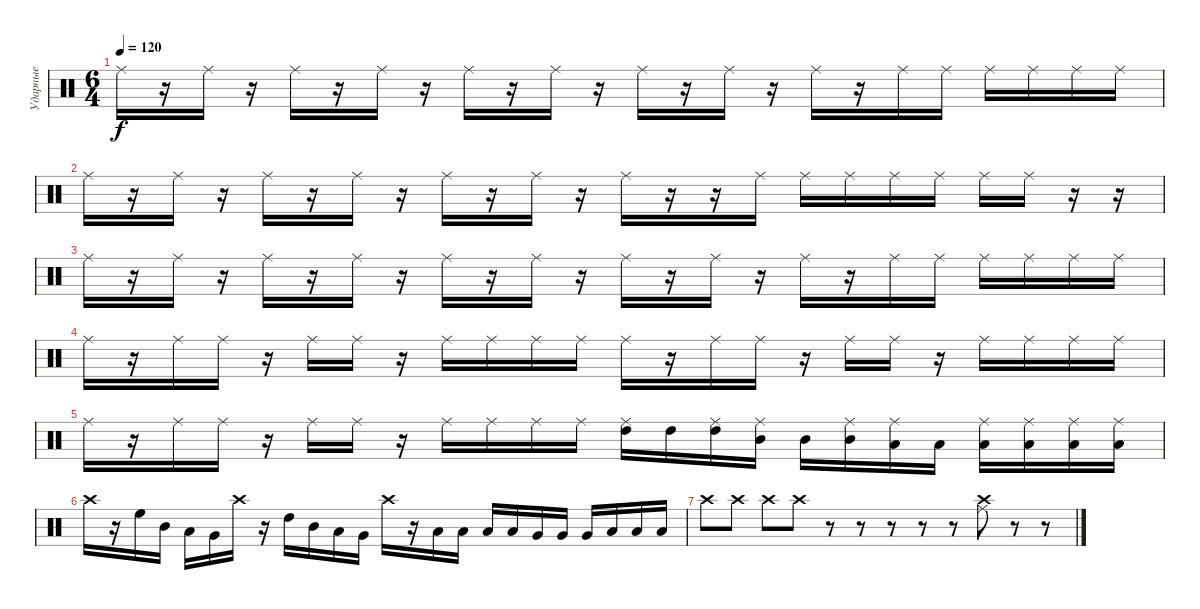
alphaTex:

\track ("Ударные" "Ударные") {instrument percussion}
\staff {score}
\articulation defaults
\ts (6 4)
\tempo 120
\clef neutral
\ks c "Ride (middle)".16{dy f}
r.16 "Ride (middle)".16 r.16 "Ride (middle)".16 r.16 "Ride (middle)".16 r.16 "Ride (middle)".16 r.16 "Ride (middle)".16 r.16 "Ride (middle)".16 r.16 "Ride (middle)".16 r.16 "Ride (middle)".16 r.16 "Ride (middle)".16 "Ride (middle)".16 "Ride (middle)".16 "Ride (middle)".16 "Ride (middle)".16 "Ride (middle)".16 |
"Ride (middle)".16 r.16 "Ride (middle)".16 r.16 "Ride (middle)".16 r.16 "Ride (middle)".16 r.16 "Ride (middle)".16 r.16 "Ride (middle)".16 r.16 "Ride (middle)".16 r.16 r.16 "Ride (middle)".16 "Ride (middle)".16 "Ride (middle)".16 "Ride (middle)".16 "Ride (middle)".16 "Ride (middle)".16 "Ride (middle)".16 r.16 r.16 |
"Ride (middle)".16 r.16 "Ride (middle)".16 r.16 "Ride (middle)".16 r.16 "Ride (middle)".16 r.16 "Ride (middle)".16 r.16 "Ride (middle)".16 r.16 "Ride (middle)".16 r.16 "Ride (middle)".16 r.16 "Ride (middle)".16 r.16 "Ride (middle)".16 "Ride (middle)".16 "Ride (middle)".16 "Ride (middle)".16 "Ride (middle)".16 "Ride (middle)".16 |
"Ride (middle)".16 r.16 "Ride (middle)".16 "Ride (middle)".16 r.16 "Ride (middle)".16 "Ride (middle)".16 r.16 "Ride (middle)".16 "Ride (middle)".16 "Ride (middle)".16 "Ride (middle)".16 "Ride (middle)".16 r.16 "Ride (middle)".16 "Ride (middle)".16 r.16 "Ride (middle)".16 "Ride (middle)".16 r.16 "Ride (middle)".16 "Ride (middle)".16 "Ride (middle)".16 "Ride (middle)".16 |
"Ride (middle)".16 r.16 "Ride (middle)".16 "Ride (middle)".16 r.16 "Ride (middle)".16 "Ride (middle)".16 r.16 "Ride (middle)".16 "Ride (middle)".16 "Ride (middle)".16 "Ride (middle)".16 ("High Tom (hit)" "Ride (middle)").16 "High Tom (hit)".16 ("High Tom (hit)" "Ride (middle)").16 ("Mid Tom (hit)" "Ride (middle)").16 "Mid Tom (hit)".16 ("Mid Tom (hit)" "Ride (middle)").16 ("Low Tom (hit)" "Ride (middle)").16 "Low Tom (hit)".16 ("Low Tom (hit)" "Ride (middle)").16 ("Low Floor Tom (hit)" "Ride (middle)").16 ("Low Floor Tom (hit)" "Ride (middle)").16 ("Low Floor Tom (hit)" "Ride (middle)").16 |
"Crash high (hit)".16 r.16 "High Floor Tom (hit)".16 "Mid Tom (hit)".16 "Low Tom (hit)".16 "Very Low Tom (hit)".16 "Crash high (hit)".16 r.16 "High Tom (hit)".16 "Mid Tom (hit)".16 "Low Tom (hit)".16 "Very Low Tom (hit)".16 "Crash high (hit)".16 r.16 "Low Floor Tom (hit)".16 "Low Floor Tom (hit)".16 "Low Floor Tom (hit)".16 "Low Floor Tom (hit)".16 "Very Low Tom (hit)".16 "Very Low Tom (hit)".16 "Very Low Tom (hit)".16 "Low Tom (hit)".16 "Low Tom (hit)".16 "Low Tom (hit)".16 |
"Crash high (hit)".8 "Crash high (hit)".8 "Crash high (hit)".8 "Crash high (hit)".8 r.8 r.8 r.8 r.8 r.8 ("Crash high (hit)" "Ride (middle)").8 r.8 r.8
